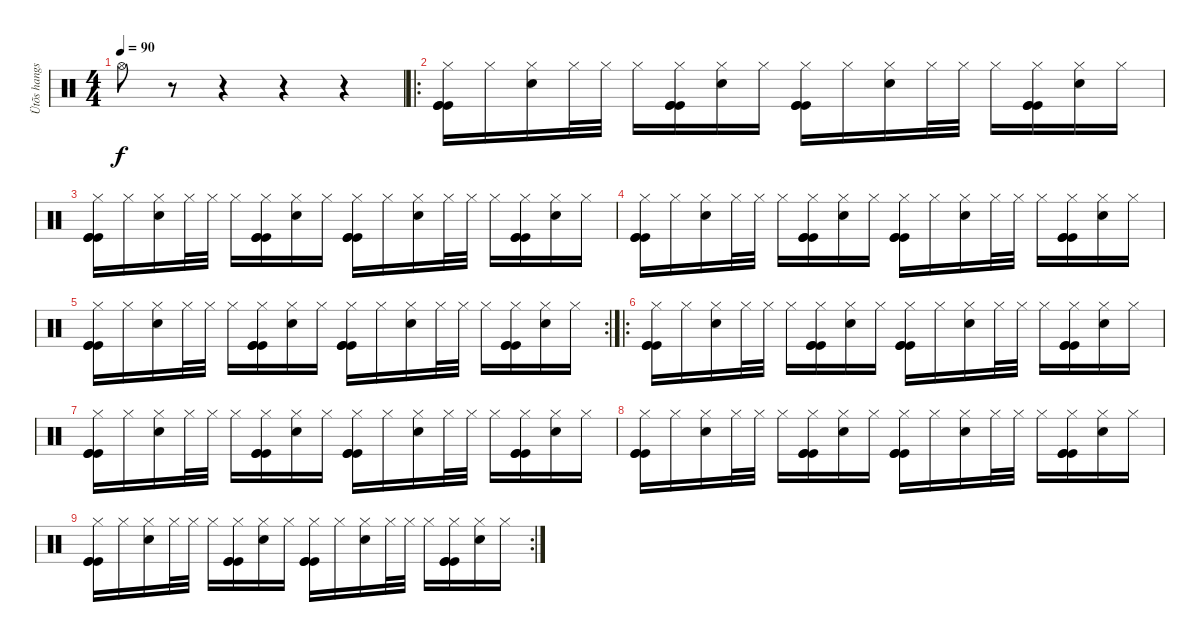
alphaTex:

\track ("Ütõs hangszer" "Ütõs hangs") {instrument percussion}
\staff {score}
\articulation defaults
\ts (4 4)
\tempo 90
\clef neutral
\ks c "Hi-Hat (open)".8{dy f}
r.8 r.4 r.4 r.4 |
\ro
("Hi-Hat (closed)" "Kick (hit)" "Kick (hit)" "Kick (hit)").16 "Hi-Hat (closed)".16 ("Hi-Hat (closed)" "Electric Snare (hit)").16 "Hi-Hat (closed)".32 "Hi-Hat (closed)".32 "Hi-Hat (closed)".16 ("Hi-Hat (closed)" "Kick (hit)" "Kick (hit)" "Kick (hit)").16 ("Hi-Hat (closed)" "Electric Snare (hit)").16 "Hi-Hat (closed)".16 ("Hi-Hat (closed)" "Kick (hit)" "Kick (hit)" "Kick (hit)").16 "Hi-Hat (closed)".16 ("Hi-Hat (closed)" "Electric Snare (hit)").16 "Hi-Hat (closed)".32 "Hi-Hat (closed)".32 "Hi-Hat (closed)".16 ("Hi-Hat (closed)" "Kick (hit)" "Kick (hit)" "Kick (hit)").16 ("Hi-Hat (closed)" "Electric Snare (hit)").16 "Hi-Hat (closed)".16 |
("Hi-Hat (closed)" "Kick (hit)" "Kick (hit)" "Kick (hit)").16 "Hi-Hat (closed)".16 ("Hi-Hat (closed)" "Electric Snare (hit)").16 "Hi-Hat (closed)".32 "Hi-Hat (closed)".32 "Hi-Hat (closed)".16 ("Hi-Hat (closed)" "Kick (hit)" "Kick (hit)" "Kick (hit)").16 ("Hi-Hat (closed)" "Electric Snare (hit)").16 "Hi-Hat (closed)".16 ("Hi-Hat (closed)" "Kick (hit)" "Kick (hit)" "Kick (hit)").16 "Hi-Hat (closed)".16 ("Hi-Hat (closed)" "Electric Snare (hit)").16 "Hi-Hat (closed)".32 "Hi-Hat (closed)".32 "Hi-Hat (closed)".16 ("Hi-Hat (closed)" "Kick (hit)" "Kick (hit)" "Kick (hit)").16 ("Hi-Hat (closed)" "Electric Snare (hit)").16 "Hi-Hat (closed)".16 |
("Hi-Hat (closed)" "Kick (hit)" "Kick (hit)" "Kick (hit)").16 "Hi-Hat (closed)".16 ("Hi-Hat (closed)" "Electric Snare (hit)").16 "Hi-Hat (closed)".32 "Hi-Hat (closed)".32 "Hi-Hat (closed)".16 ("Hi-Hat (closed)" "Kick (hit)" "Kick (hit)" "Kick (hit)").16 ("Hi-Hat (closed)" "Electric Snare (hit)").16 "Hi-Hat (closed)".16 ("Hi-Hat (closed)" "Kick (hit)" "Kick (hit)" "Kick (hit)").16 "Hi-Hat (closed)".16 ("Hi-Hat (closed)" "Electric Snare (hit)").16 "Hi-Hat (closed)".32 "Hi-Hat (closed)".32 "Hi-Hat (closed)".16 ("Hi-Hat (closed)" "Kick (hit)" "Kick (hit)" "Kick (hit)").16 ("Hi-Hat (closed)" "Electric Snare (hit)").16 "Hi-Hat (closed)".16 |
\rc 2
("Hi-Hat (closed)" "Kick (hit)" "Kick (hit)" "Kick (hit)").16 "Hi-Hat (closed)".16 ("Hi-Hat (closed)" "Electric Snare (hit)").16 "Hi-Hat (closed)".32 "Hi-Hat (closed)".32 "Hi-Hat (closed)".16 ("Hi-Hat (closed)" "Kick (hit)" "Kick (hit)" "Kick (hit)").16 ("Hi-Hat (closed)" "Electric Snare (hit)").16 "Hi-Hat (closed)".16 ("Hi-Hat (closed)" "Kick (hit)" "Kick (hit)" "Kick (hit)").16 "Hi-Hat (closed)".16 ("Hi-Hat (closed)" "Electric Snare (hit)").16 "Hi-Hat (closed)".32 "Hi-Hat (closed)".32 "Hi-Hat (closed)".16 ("Hi-Hat (closed)" "Kick (hit)" "Kick (hit)" "Kick (hit)").16 ("Hi-Hat (closed)" "Electric Snare (hit)").16 "Hi-Hat (closed)".16 |
\ro
("Hi-Hat (closed)" "Kick (hit)" "Kick (hit)" "Kick (hit)").16 "Hi-Hat (closed)".16 ("Hi-Hat (closed)" "Electric Snare (hit)").16 "Hi-Hat (closed)".32 "Hi-Hat (closed)".32 "Hi-Hat (closed)".16 ("Hi-Hat (closed)" "Kick (hit)" "Kick (hit)" "Kick (hit)").16 ("Hi-Hat (closed)" "Electric Snare (hit)").16 "Hi-Hat (closed)".16 ("Hi-Hat (closed)" "Kick (hit)" "Kick (hit)" "Kick (hit)").16 "Hi-Hat (closed)".16 ("Hi-Hat (closed)" "Electric Snare (hit)").16 "Hi-Hat (closed)".32 "Hi-Hat (closed)".32 "Hi-Hat (closed)".16 ("Hi-Hat (closed)" "Kick (hit)" "Kick (hit)" "Kick (hit)").16 ("Hi-Hat (closed)" "Electric Snare (hit)").16 "Hi-Hat (closed)".16 |
("Hi-Hat (closed)" "Kick (hit)" "Kick (hit)" "Kick (hit)").16 "Hi-Hat (closed)".16 ("Hi-Hat (closed)" "Electric Snare (hit)").16 "Hi-Hat (closed)".32 "Hi-Hat (closed)".32 "Hi-Hat (closed)".16 ("Hi-Hat (closed)" "Kick (hit)" "Kick (hit)" "Kick (hit)").16 ("Hi-Hat (closed)" "Electric Snare (hit)").16 "Hi-Hat (closed)".16 ("Hi-Hat (closed)" "Kick (hit)" "Kick (hit)" "Kick (hit)").16 "Hi-Hat (closed)".16 ("Hi-Hat (closed)" "Electric Snare (hit)").16 "Hi-Hat (closed)".32 "Hi-Hat (closed)".32 "Hi-Hat (closed)".16 ("Hi-Hat (closed)" "Kick (hit)" "Kick (hit)" "Kick (hit)").16 ("Hi-Hat (closed)" "Electric Snare (hit)").16 "Hi-Hat (closed)".16 |
("Hi-Hat (closed)" "Kick (hit)" "Kick (hit)" "Kick (hit)").16 "Hi-Hat (closed)".16 ("Hi-Hat (closed)" "Electric Snare (hit)").16 "Hi-Hat (closed)".32 "Hi-Hat (closed)".32 "Hi-Hat (closed)".16 ("Hi-Hat (closed)" "Kick (hit)" "Kick (hit)" "Kick (hit)").16 ("Hi-Hat (closed)" "Electric Snare (hit)").16 "Hi-Hat (closed)".16 ("Hi-Hat (closed)" "Kick (hit)" "Kick (hit)" "Kick (hit)").16 "Hi-Hat (closed)".16 ("Hi-Hat (closed)" "Electric Snare (hit)").16 "Hi-Hat (closed)".32 "Hi-Hat (closed)".32 "Hi-Hat (closed)".16 ("Hi-Hat (closed)" "Kick (hit)" "Kick (hit)" "Kick (hit)").16 ("Hi-Hat (closed)" "Electric Snare (hit)").16 "Hi-Hat (closed)".16 |
\rc 2
("Hi-Hat (closed)" "Kick (hit)" "Kick (hit)" "Kick (hit)").16 "Hi-Hat (closed)".16 ("Hi-Hat (closed)" "Electric Snare (hit)").16 "Hi-Hat (closed)".32 "Hi-Hat (closed)".32 "Hi-Hat (closed)".16 ("Hi-Hat (closed)" "Kick (hit)" "Kick (hit)" "Kick (hit)").16 ("Hi-Hat (closed)" "Electric Snare (hit)").16 "Hi-Hat (closed)".16 ("Hi-Hat (closed)" "Kick (hit)" "Kick (hit)" "Kick (hit)").16 "Hi-Hat (closed)".16 ("Hi-Hat (closed)" "Electric Snare (hit)").16 "Hi-Hat (closed)".32 "Hi-Hat (closed)".32 "Hi-Hat (closed)".16 ("Hi-Hat (closed)" "Kick (hit)" "Kick (hit)" "Kick (hit)").16 ("Hi-Hat (closed)" "Electric Snare (hit)").16 "Hi-Hat (closed)".16
